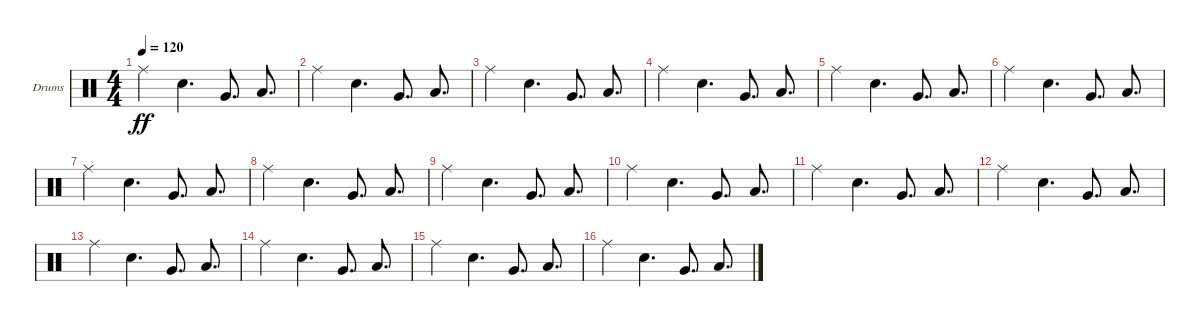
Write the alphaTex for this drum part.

\defaultSystemsLayout 4
\bracketExtendMode groupsimilarinstruments
\firstSystemTrackNameOrientation horizontal
\otherSystemsTrackNameOrientation horizontal
\track ("Drumkit" "Drums") {instrument percussion}
\staff {score}
\articulation defaults
\ts (4 4)
\tempo 120
\clef neutral
\ks c "Ride (middle)".4{dy ff} "Snare (hit) 2".4{d} "Very Low Tom (hit)".8{d} "Low Tom (hit)".8{d}
|
"Ride (middle)".4 "Snare (hit) 2".4{d} "Very Low Tom (hit)".8{d} "Low Tom (hit)".8{d} |
"Ride (middle)".4 "Snare (hit) 2".4{d} "Very Low Tom (hit)".8{d} "Low Tom (hit)".8{d} |
"Ride (middle)".4 "Snare (hit) 2".4{d} "Very Low Tom (hit)".8{d} "Low Tom (hit)".8{d} |
"Ride (middle)".4 "Snare (hit) 2".4{d} "Very Low Tom (hit)".8{d} "Low Tom (hit)".8{d} |
"Ride (middle)".4 "Snare (hit) 2".4{d} "Very Low Tom (hit)".8{d} "Low Tom (hit)".8{d} |
"Ride (middle)".4 "Snare (hit) 2".4{d} "Very Low Tom (hit)".8{d} "Low Tom (hit)".8{d} |
"Ride (middle)".4 "Snare (hit) 2".4{d} "Very Low Tom (hit)".8{d} "Low Tom (hit)".8{d} |
"Ride (middle)".4 "Snare (hit) 2".4{d} "Very Low Tom (hit)".8{d} "Low Tom (hit)".8{d} |
"Ride (middle)".4 "Snare (hit) 2".4{d} "Very Low Tom (hit)".8{d} "Low Tom (hit)".8{d} |
"Ride (middle)".4 "Snare (hit) 2".4{d} "Very Low Tom (hit)".8{d} "Low Tom (hit)".8{d} |
"Ride (middle)".4 "Snare (hit) 2".4{d} "Very Low Tom (hit)".8{d} "Low Tom (hit)".8{d} |
"Ride (middle)".4 "Snare (hit) 2".4{d} "Very Low Tom (hit)".8{d} "Low Tom (hit)".8{d} |
"Ride (middle)".4 "Snare (hit) 2".4{d} "Very Low Tom (hit)".8{d} "Low Tom (hit)".8{d} |
"Ride (middle)".4 "Snare (hit) 2".4{d} "Very Low Tom (hit)".8{d} "Low Tom (hit)".8{d} |
"Ride (middle)".4 "Snare (hit) 2".4{d} "Very Low Tom (hit)".8{d} "Low Tom (hit)".8{d}
